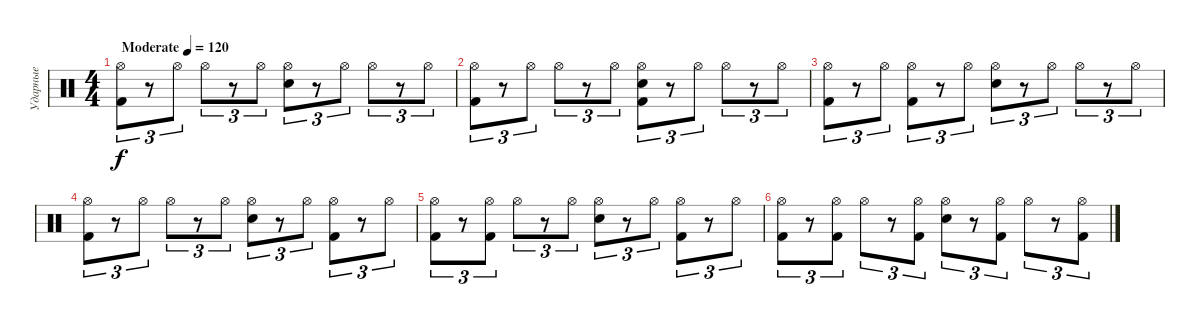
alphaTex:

\track ("Ударные" "Ударные") {instrument percussion}
\staff {score}
\articulation defaults
\ts (4 4)
\tempo (120 "Moderate")
\clef neutral
\ks c
("Hi-Hat (open)" "Kick (hit) 2").8{tu (3 2) dy f} r.8{tu (3 2)} "Hi-Hat (open)".8{tu (3 2)} "Hi-Hat (open)".8{tu (3 2)} r.8{tu (3 2)} "Hi-Hat (open)".8{tu (3 2)} ("Hi-Hat (open)" "Electric Snare (hit)").8{tu (3 2)} r.8{tu (3 2)} "Hi-Hat (open)".8{tu (3 2)} "Hi-Hat (open)".8{tu (3 2)} r.8{tu (3 2)} "Hi-Hat (open)".8{tu (3 2)} |
("Hi-Hat (open)" "Kick (hit) 2").8{tu (3 2)} r.8{tu (3 2)} "Hi-Hat (open)".8{tu (3 2)} "Hi-Hat (open)".8{tu (3 2)} r.8{tu (3 2)} "Hi-Hat (open)".8{tu (3 2)} ("Hi-Hat (open)" "Electric Snare (hit)" "Kick (hit) 2").8{tu (3 2)} r.8{tu (3 2)} "Hi-Hat (open)".8{tu (3 2)} "Hi-Hat (open)".8{tu (3 2)} r.8{tu (3 2)} "Hi-Hat (open)".8{tu (3 2)} |
("Hi-Hat (open)" "Kick (hit) 2").8{tu (3 2)} r.8{tu (3 2)} "Hi-Hat (open)".8{tu (3 2)} ("Hi-Hat (open)" "Kick (hit) 2").8{tu (3 2)} r.8{tu (3 2)} "Hi-Hat (open)".8{tu (3 2)} ("Hi-Hat (open)" "Electric Snare (hit)").8{tu (3 2)} r.8{tu (3 2)} "Hi-Hat (open)".8{tu (3 2)} "Hi-Hat (open)".8{tu (3 2)} r.8{tu (3 2)} "Hi-Hat (open)".8{tu (3 2)} |
("Hi-Hat (open)" "Kick (hit) 2").8{tu (3 2)} r.8{tu (3 2)} "Hi-Hat (open)".8{tu (3 2)} "Hi-Hat (open)".8{tu (3 2)} r.8{tu (3 2)} "Hi-Hat (open)".8{tu (3 2)} ("Hi-Hat (open)" "Electric Snare (hit)").8{tu (3 2)} r.8{tu (3 2)} "Hi-Hat (open)".8{tu (3 2)} ("Hi-Hat (open)" "Kick (hit) 2").8{tu (3 2)} r.8{tu (3 2)} "Hi-Hat (open)".8{tu (3 2)} |
("Hi-Hat (open)" "Kick (hit) 2").8{tu (3 2)} r.8{tu (3 2)} ("Hi-Hat (open)" "Kick (hit) 2").8{tu (3 2)} "Hi-Hat (open)".8{tu (3 2)} r.8{tu (3 2)} "Hi-Hat (open)".8{tu (3 2)} ("Hi-Hat (open)" "Electric Snare (hit)").8{tu (3 2)} r.8{tu (3 2)} "Hi-Hat (open)".8{tu (3 2)} ("Hi-Hat (open)" "Kick (hit) 2").8{tu (3 2)} r.8{tu (3 2)} "Hi-Hat (open)".8{tu (3 2)} |
("Hi-Hat (open)" "Kick (hit) 2").8{tu (3 2)} r.8{tu (3 2)} ("Hi-Hat (open)" "Kick (hit) 2").8{tu (3 2)} "Hi-Hat (open)".8{tu (3 2)} r.8{tu (3 2)} ("Hi-Hat (open)" "Kick (hit) 2").8{tu (3 2)} ("Hi-Hat (open)" "Electric Snare (hit)").8{tu (3 2)} r.8{tu (3 2)} ("Hi-Hat (open)" "Kick (hit) 2").8{tu (3 2)} "Hi-Hat (open)".8{tu (3 2)} r.8{tu (3 2)} ("Hi-Hat (open)" "Kick (hit) 2").8{tu (3 2)}
